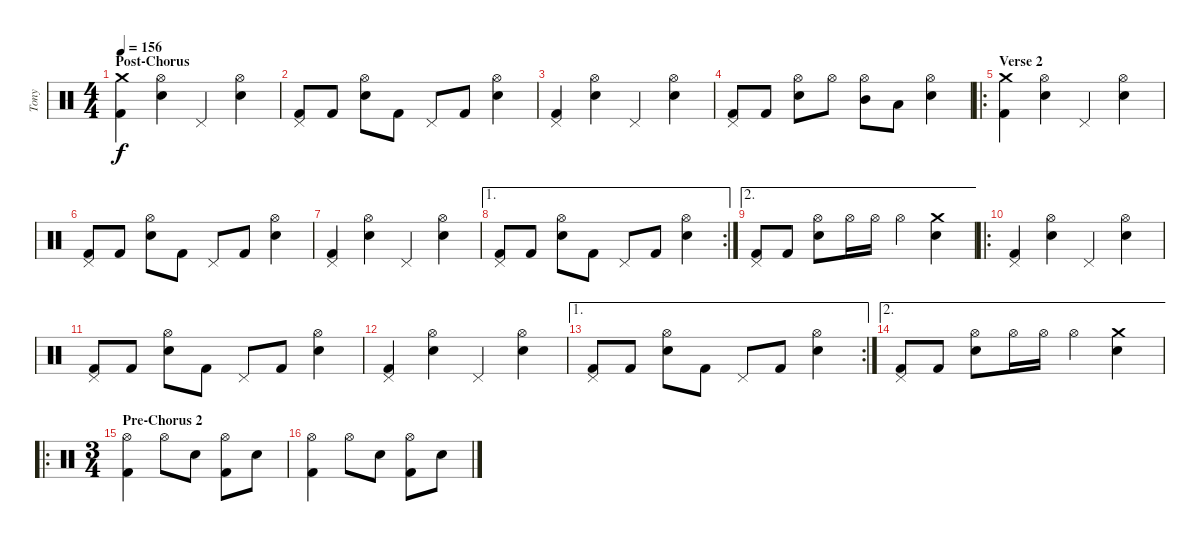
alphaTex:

\track ("Tony" "Tony") {instrument percussion}
\staff {score}
\articulation defaults
\ts (4 4)
\section ("" "Post-Chorus")
\tempo 156
\clef neutral
\ks c
("Crash medium (hit)" "Kick (hit) 2").4{dy f} ("Hi-Hat (open)" "Electric Snare (hit)").4 "Pedal Hi-Hat (hit)".4 ("Hi-Hat (open)" "Electric Snare (hit)").4 |
("Pedal Hi-Hat (hit)" "Kick (hit) 2").8 "Kick (hit) 2".8 ("Hi-Hat (open)" "Electric Snare (hit)").8 "Kick (hit) 2".8 "Pedal Hi-Hat (hit)".8 "Kick (hit) 2".8 ("Hi-Hat (open)" "Electric Snare (hit)").4 |
("Pedal Hi-Hat (hit)" "Kick (hit) 2").4 ("Hi-Hat (open)" "Electric Snare (hit)").4 "Pedal Hi-Hat (hit)".4 ("Hi-Hat (open)" "Electric Snare (hit)").4 |
("Pedal Hi-Hat (hit)" "Kick (hit) 2").8 "Kick (hit) 2".8 ("Hi-Hat (open)" "Electric Snare (hit)").8 "Hi-Hat (open)".8 ("Hi-Hat (open)" "Mid Tom (hit)").8 "Low Tom (hit)".8 ("Hi-Hat (open)" "Electric Snare (hit)").4 |
\ro
\section ("" "Verse 2")
("Crash medium (hit)" "Kick (hit) 2").4 ("Hi-Hat (open)" "Electric Snare (hit)").4 "Pedal Hi-Hat (hit)".4 ("Hi-Hat (open)" "Electric Snare (hit)").4 |
("Pedal Hi-Hat (hit)" "Kick (hit) 2").8 "Kick (hit) 2".8 ("Hi-Hat (open)" "Electric Snare (hit)").8 "Kick (hit) 2".8 "Pedal Hi-Hat (hit)".8 "Kick (hit) 2".8 ("Hi-Hat (open)" "Electric Snare (hit)").4 |
("Pedal Hi-Hat (hit)" "Kick (hit) 2").4 ("Hi-Hat (open)" "Electric Snare (hit)").4 "Pedal Hi-Hat (hit)".4 ("Hi-Hat (open)" "Electric Snare (hit)").4 |
\ae 1
\rc 2
("Pedal Hi-Hat (hit)" "Kick (hit) 2").8 "Kick (hit) 2".8 ("Hi-Hat (open)" "Electric Snare (hit)").8 "Kick (hit) 2".8 "Pedal Hi-Hat (hit)".8 "Kick (hit) 2".8 ("Hi-Hat (open)" "Electric Snare (hit)").4 |
\ae 2
("Pedal Hi-Hat (hit)" "Kick (hit) 2").8 "Kick (hit) 2".8 ("Hi-Hat (open)" "Electric Snare (hit)").8 "Hi-Hat (open)".16 "Hi-Hat (open)".16 "Hi-Hat (open)".4 ("Crash medium (hit)" "Electric Snare (hit)").4 |
\ro
("Pedal Hi-Hat (hit)" "Kick (hit) 2").4 ("Hi-Hat (open)" "Electric Snare (hit)").4 "Pedal Hi-Hat (hit)".4 ("Hi-Hat (open)" "Electric Snare (hit)").4 |
("Pedal Hi-Hat (hit)" "Kick (hit) 2").8 "Kick (hit) 2".8 ("Hi-Hat (open)" "Electric Snare (hit)").8 "Kick (hit) 2".8 "Pedal Hi-Hat (hit)".8 "Kick (hit) 2".8 ("Hi-Hat (open)" "Electric Snare (hit)").4 |
("Pedal Hi-Hat (hit)" "Kick (hit) 2").4 ("Hi-Hat (open)" "Electric Snare (hit)").4 "Pedal Hi-Hat (hit)".4 ("Hi-Hat (open)" "Electric Snare (hit)").4 |
\ae 1
\rc 2
("Pedal Hi-Hat (hit)" "Kick (hit) 2").8 "Kick (hit) 2".8 ("Hi-Hat (open)" "Electric Snare (hit)").8 "Kick (hit) 2".8 "Pedal Hi-Hat (hit)".8 "Kick (hit) 2".8 ("Hi-Hat (open)" "Electric Snare (hit)").4 |
\ae 2
("Pedal Hi-Hat (hit)" "Kick (hit) 2").8 "Kick (hit) 2".8 ("Hi-Hat (open)" "Electric Snare (hit)").8 "Hi-Hat (open)".16 "Hi-Hat (open)".16 "Hi-Hat (open)".4 ("Crash medium (hit)" "Electric Snare (hit)").4 |
\ro
\ts (3 4)
\section ("" "Pre-Chorus 2")
("Hi-Hat (open)" "Kick (hit) 2").4 "Hi-Hat (open)".8 "Electric Snare (hit)".8 ("Hi-Hat (open)" "Kick (hit) 2").8 "Electric Snare (hit)".8 |
("Hi-Hat (open)" "Kick (hit) 2").4 "Hi-Hat (open)".8 "Electric Snare (hit)".8 ("Hi-Hat (open)" "Kick (hit) 2").8 "Electric Snare (hit)".8
